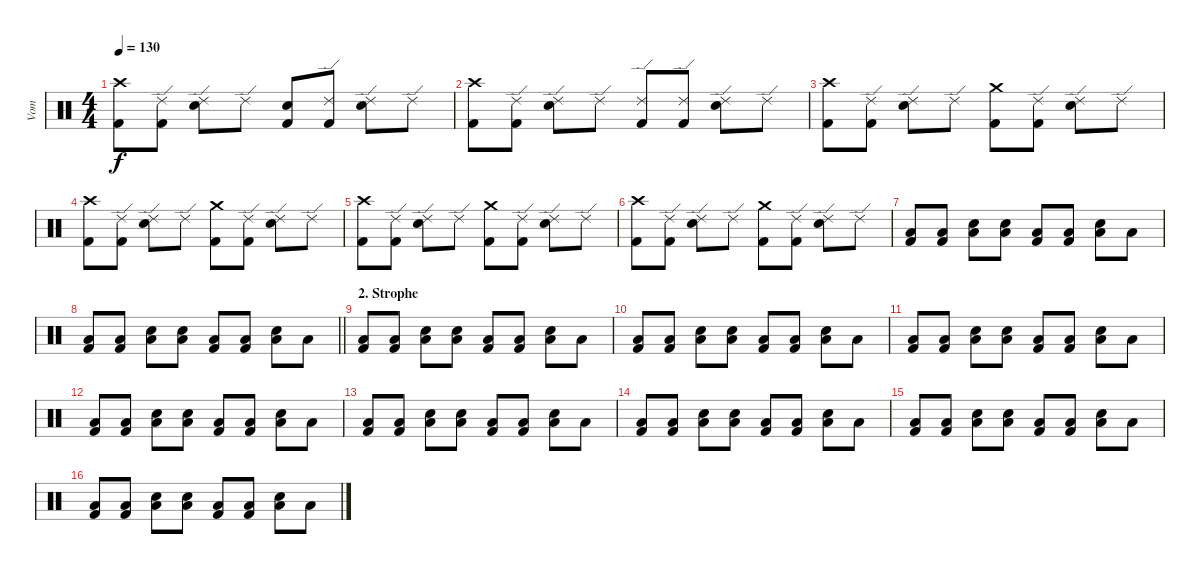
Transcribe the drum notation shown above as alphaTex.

\track ("Vom" "Vom") {instrument percussion}
\staff {score}
\articulation defaults
\ts (4 4)
\tempo 130
\clef neutral
\ks c
("Crash high (hit)" "Kick (hit) 2").8{dy f} ("Ride (edge) 2" "Kick (hit) 2").8 ("Ride (edge) 2" "Snare (hit) 2").8 "Ride (edge) 2".8 ("Snare (hit)" "Kick (hit) 2").8 ("Ride (edge) 2" "Kick (hit) 2").8 ("Ride (edge) 2" "Snare (hit) 2").8 "Ride (edge) 2".8 |
("Crash high (hit)" "Kick (hit) 2").8 ("Ride (edge) 2" "Kick (hit) 2").8 ("Ride (edge) 2" "Snare (hit) 2").8 "Ride (edge) 2".8 ("Ride (edge) 2" "Kick (hit) 2").8 ("Ride (edge) 2" "Kick (hit) 2").8 ("Ride (edge) 2" "Snare (hit) 2").8 "Ride (edge) 2".8 |
("Crash high (hit)" "Kick (hit) 2").8 ("Ride (edge) 2" "Kick (hit) 2").8 ("Ride (edge) 2" "Snare (hit) 2").8 "Ride (edge) 2".8 ("Crash medium (hit)" "Kick (hit) 2").8 ("Ride (edge) 2" "Kick (hit) 2").8 ("Ride (edge) 2" "Snare (hit) 2").8 "Ride (edge) 2".8 |
("Crash high (hit)" "Kick (hit) 2").8 ("Ride (edge) 2" "Kick (hit) 2").8 ("Ride (edge) 2" "Snare (hit) 2").8 "Ride (edge) 2".8 ("Crash medium (hit)" "Kick (hit) 2").8 ("Ride (edge) 2" "Kick (hit) 2").8 ("Ride (edge) 2" "Snare (hit) 2").8 "Ride (edge) 2".8 |
("Crash high (hit)" "Kick (hit) 2").8 ("Ride (edge) 2" "Kick (hit) 2").8 ("Ride (edge) 2" "Snare (hit) 2").8 "Ride (edge) 2".8 ("Crash medium (hit)" "Kick (hit) 2").8 ("Ride (edge) 2" "Kick (hit) 2").8 ("Ride (edge) 2" "Snare (hit) 2").8 "Ride (edge) 2".8 |
("Crash high (hit)" "Kick (hit) 2").8 ("Ride (edge) 2" "Kick (hit) 2").8 ("Ride (edge) 2" "Snare (hit) 2").8 "Ride (edge) 2".8 ("Crash medium (hit)" "Kick (hit) 2").8 ("Ride (edge) 2" "Kick (hit) 2").8 ("Ride (edge) 2" "Snare (hit) 2").8 "Ride (edge) 2".8 |
("Low Floor Tom (hit)" "Kick (hit) 2").8 ("Low Floor Tom (hit)" "Kick (hit) 2").8 ("Snare (hit) 2" "Low Floor Tom (hit)").8 ("Snare (hit) 2" "Low Floor Tom (hit)").8 ("Low Floor Tom (hit)" "Kick (hit) 2").8 ("Low Floor Tom (hit)" "Kick (hit) 2").8 ("Snare (hit) 2" "Low Floor Tom (hit)").8 "Low Floor Tom (hit)".8 |
\barLineRight lightlight
("Low Floor Tom (hit)" "Kick (hit) 2").8 ("Low Floor Tom (hit)" "Kick (hit) 2").8 ("Snare (hit) 2" "Low Floor Tom (hit)").8 ("Snare (hit) 2" "Low Floor Tom (hit)").8 ("Low Floor Tom (hit)" "Kick (hit) 2").8 ("Low Floor Tom (hit)" "Kick (hit) 2").8 ("Snare (hit) 2" "Low Floor Tom (hit)").8 "Low Floor Tom (hit)".8 |
\section ("" "2. Strophe")
("Low Floor Tom (hit)" "Kick (hit) 2").8 ("Low Floor Tom (hit)" "Kick (hit) 2").8 ("Snare (hit) 2" "Low Floor Tom (hit)").8 ("Snare (hit) 2" "Low Floor Tom (hit)").8 ("Low Floor Tom (hit)" "Kick (hit) 2").8 ("Low Floor Tom (hit)" "Kick (hit) 2").8 ("Snare (hit) 2" "Low Floor Tom (hit)").8 "Low Floor Tom (hit)".8 |
("Low Floor Tom (hit)" "Kick (hit) 2").8 ("Low Floor Tom (hit)" "Kick (hit) 2").8 ("Snare (hit) 2" "Low Floor Tom (hit)").8 ("Snare (hit) 2" "Low Floor Tom (hit)").8 ("Low Floor Tom (hit)" "Kick (hit) 2").8 ("Low Floor Tom (hit)" "Kick (hit) 2").8 ("Snare (hit) 2" "Low Floor Tom (hit)").8 "Low Floor Tom (hit)".8 |
("Low Floor Tom (hit)" "Kick (hit) 2").8 ("Low Floor Tom (hit)" "Kick (hit) 2").8 ("Snare (hit) 2" "Low Floor Tom (hit)").8 ("Snare (hit) 2" "Low Floor Tom (hit)").8 ("Low Floor Tom (hit)" "Kick (hit) 2").8 ("Low Floor Tom (hit)" "Kick (hit) 2").8 ("Snare (hit) 2" "Low Floor Tom (hit)").8 "Low Floor Tom (hit)".8 |
("Low Floor Tom (hit)" "Kick (hit) 2").8 ("Low Floor Tom (hit)" "Kick (hit) 2").8 ("Snare (hit) 2" "Low Floor Tom (hit)").8 ("Snare (hit) 2" "Low Floor Tom (hit)").8 ("Low Floor Tom (hit)" "Kick (hit) 2").8 ("Low Floor Tom (hit)" "Kick (hit) 2").8 ("Snare (hit) 2" "Low Floor Tom (hit)").8 "Low Floor Tom (hit)".8 |
("Low Floor Tom (hit)" "Kick (hit) 2").8 ("Low Floor Tom (hit)" "Kick (hit) 2").8 ("Snare (hit) 2" "Low Floor Tom (hit)").8 ("Snare (hit) 2" "Low Floor Tom (hit)").8 ("Low Floor Tom (hit)" "Kick (hit) 2").8 ("Low Floor Tom (hit)" "Kick (hit) 2").8 ("Snare (hit) 2" "Low Floor Tom (hit)").8 "Low Floor Tom (hit)".8 |
("Low Floor Tom (hit)" "Kick (hit) 2").8 ("Low Floor Tom (hit)" "Kick (hit) 2").8 ("Snare (hit) 2" "Low Floor Tom (hit)").8 ("Snare (hit) 2" "Low Floor Tom (hit)").8 ("Low Floor Tom (hit)" "Kick (hit) 2").8 ("Low Floor Tom (hit)" "Kick (hit) 2").8 ("Snare (hit) 2" "Low Floor Tom (hit)").8 "Low Floor Tom (hit)".8 |
("Low Floor Tom (hit)" "Kick (hit) 2").8 ("Low Floor Tom (hit)" "Kick (hit) 2").8 ("Snare (hit) 2" "Low Floor Tom (hit)").8 ("Snare (hit) 2" "Low Floor Tom (hit)").8 ("Low Floor Tom (hit)" "Kick (hit) 2").8 ("Low Floor Tom (hit)" "Kick (hit) 2").8 ("Snare (hit) 2" "Low Floor Tom (hit)").8 "Low Floor Tom (hit)".8 |
("Low Floor Tom (hit)" "Kick (hit) 2").8 ("Low Floor Tom (hit)" "Kick (hit) 2").8 ("Snare (hit) 2" "Low Floor Tom (hit)").8 ("Snare (hit) 2" "Low Floor Tom (hit)").8 ("Low Floor Tom (hit)" "Kick (hit) 2").8 ("Low Floor Tom (hit)" "Kick (hit) 2").8 ("Snare (hit) 2" "Low Floor Tom (hit)").8 "Low Floor Tom (hit)".8
